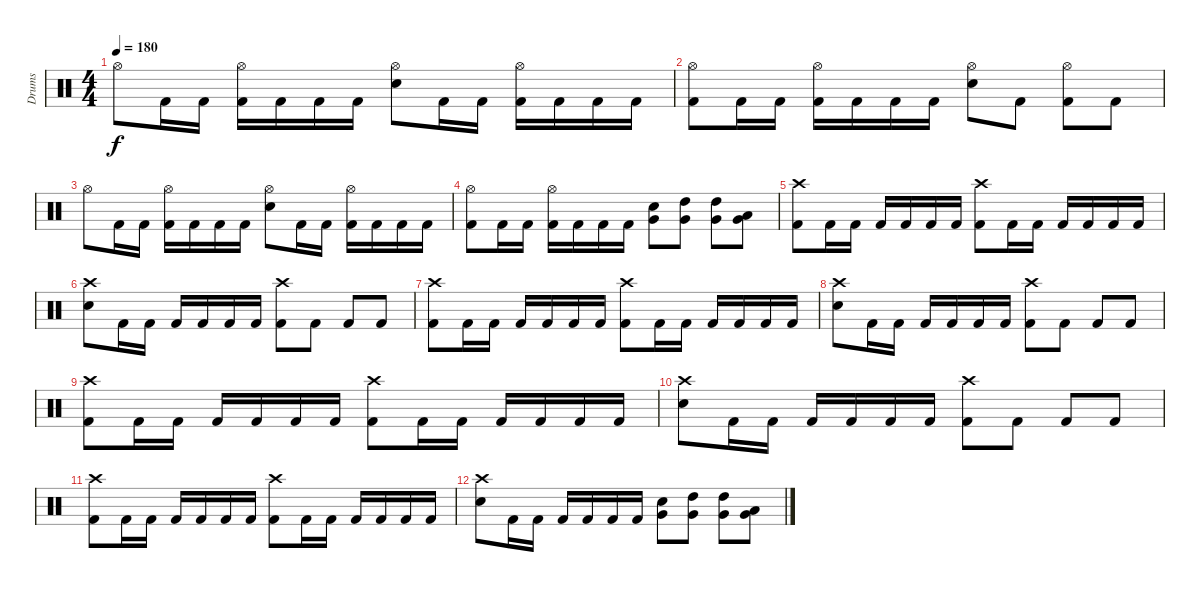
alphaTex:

\track ("Drums" "Drums") {instrument percussion}
\staff {score}
\articulation defaults
\ts (4 4)
\tempo 180
\clef neutral
\ks c "Hi-Hat (open)".8{dy f} "Kick (hit) 2".16 "Kick (hit) 2".16
("Hi-Hat (open)" "Kick (hit) 2").16 "Kick (hit) 2".16 "Kick (hit) 2".16 "Kick (hit) 2".16 ("Hi-Hat (open)" "Snare (hit) 2").8 "Kick (hit) 2".16 "Kick (hit) 2".16 ("Hi-Hat (open)" "Kick (hit) 2").16 "Kick (hit) 2".16 "Kick (hit) 2".16 "Kick (hit) 2".16 |
("Hi-Hat (open)" "Kick (hit) 2").8 "Kick (hit) 2".16 "Kick (hit) 2".16 ("Hi-Hat (open)" "Kick (hit) 2").16 "Kick (hit) 2".16 "Kick (hit) 2".16 "Kick (hit) 2".16 ("Hi-Hat (open)" "Snare (hit) 2").8 "Kick (hit) 2".8 ("Hi-Hat (open)" "Kick (hit) 2").8 "Kick (hit) 2".8 |
"Hi-Hat (open)".8 "Kick (hit) 2".16 "Kick (hit) 2".16 ("Hi-Hat (open)" "Kick (hit) 2").16 "Kick (hit) 2".16 "Kick (hit) 2".16 "Kick (hit) 2".16 ("Hi-Hat (open)" "Snare (hit) 2").8 "Kick (hit) 2".16 "Kick (hit) 2".16 ("Hi-Hat (open)" "Kick (hit) 2").16 "Kick (hit) 2".16 "Kick (hit) 2".16 "Kick (hit) 2".16 |
("Hi-Hat (open)" "Kick (hit) 2").8 "Kick (hit) 2".16 "Kick (hit) 2".16 ("Hi-Hat (open)" "Kick (hit) 2").16 "Kick (hit) 2".16 "Kick (hit) 2".16 "Kick (hit) 2".16 ("Snare (hit) 2" "Very Low Tom (hit)").8 ("High Tom (hit)" "Very Low Tom (hit)").8 ("High Tom (hit)" "Very Low Tom (hit)").8 ("Low Tom (hit)" "Very Low Tom (hit)").8 |
("Crash high (hit)" "Kick (hit) 2").8 "Kick (hit) 2".16 "Kick (hit) 2".16 "Kick (hit) 2".16 "Kick (hit) 2".16 "Kick (hit) 2".16 "Kick (hit) 2".16 ("Crash high (hit)" "Kick (hit) 2").8 "Kick (hit) 2".16 "Kick (hit) 2".16 "Kick (hit) 2".16 "Kick (hit) 2".16 "Kick (hit) 2".16 "Kick (hit) 2".16 |
("Crash high (hit)" "Snare (hit) 2").8 "Kick (hit) 2".16 "Kick (hit) 2".16 "Kick (hit) 2".16 "Kick (hit) 2".16 "Kick (hit) 2".16 "Kick (hit) 2".16 ("Crash high (hit)" "Kick (hit) 2").8 "Kick (hit) 2".8 "Kick (hit) 2".8 "Kick (hit) 2".8 |
("Crash high (hit)" "Kick (hit) 2").8 "Kick (hit) 2".16 "Kick (hit) 2".16 "Kick (hit) 2".16 "Kick (hit) 2".16 "Kick (hit) 2".16 "Kick (hit) 2".16 ("Crash high (hit)" "Kick (hit) 2").8 "Kick (hit) 2".16 "Kick (hit) 2".16 "Kick (hit) 2".16 "Kick (hit) 2".16 "Kick (hit) 2".16 "Kick (hit) 2".16 |
("Crash high (hit)" "Snare (hit) 2").8 "Kick (hit) 2".16 "Kick (hit) 2".16 "Kick (hit) 2".16 "Kick (hit) 2".16 "Kick (hit) 2".16 "Kick (hit) 2".16 ("Crash high (hit)" "Kick (hit) 2").8 "Kick (hit) 2".8 "Kick (hit) 2".8 "Kick (hit) 2".8 |
("Crash high (hit)" "Kick (hit) 2").8 "Kick (hit) 2".16 "Kick (hit) 2".16 "Kick (hit) 2".16 "Kick (hit) 2".16 "Kick (hit) 2".16 "Kick (hit) 2".16 ("Crash high (hit)" "Kick (hit) 2").8 "Kick (hit) 2".16 "Kick (hit) 2".16 "Kick (hit) 2".16 "Kick (hit) 2".16 "Kick (hit) 2".16 "Kick (hit) 2".16 |
("Crash high (hit)" "Snare (hit) 2").8 "Kick (hit) 2".16 "Kick (hit) 2".16 "Kick (hit) 2".16 "Kick (hit) 2".16 "Kick (hit) 2".16 "Kick (hit) 2".16 ("Crash high (hit)" "Kick (hit) 2").8 "Kick (hit) 2".8 "Kick (hit) 2".8 "Kick (hit) 2".8 |
("Crash high (hit)" "Kick (hit) 2").8 "Kick (hit) 2".16 "Kick (hit) 2".16 "Kick (hit) 2".16 "Kick (hit) 2".16 "Kick (hit) 2".16 "Kick (hit) 2".16 ("Crash high (hit)" "Kick (hit) 2").8 "Kick (hit) 2".16 "Kick (hit) 2".16 "Kick (hit) 2".16 "Kick (hit) 2".16 "Kick (hit) 2".16 "Kick (hit) 2".16 |
("Crash high (hit)" "Snare (hit) 2").8 "Kick (hit) 2".16 "Kick (hit) 2".16 "Kick (hit) 2".16 "Kick (hit) 2".16 "Kick (hit) 2".16 "Kick (hit) 2".16 ("Snare (hit) 2" "Very Low Tom (hit)").8 ("High Tom (hit)" "Very Low Tom (hit)").8 ("High Tom (hit)" "Very Low Tom (hit)").8 ("Low Tom (hit)" "Very Low Tom (hit)").8
